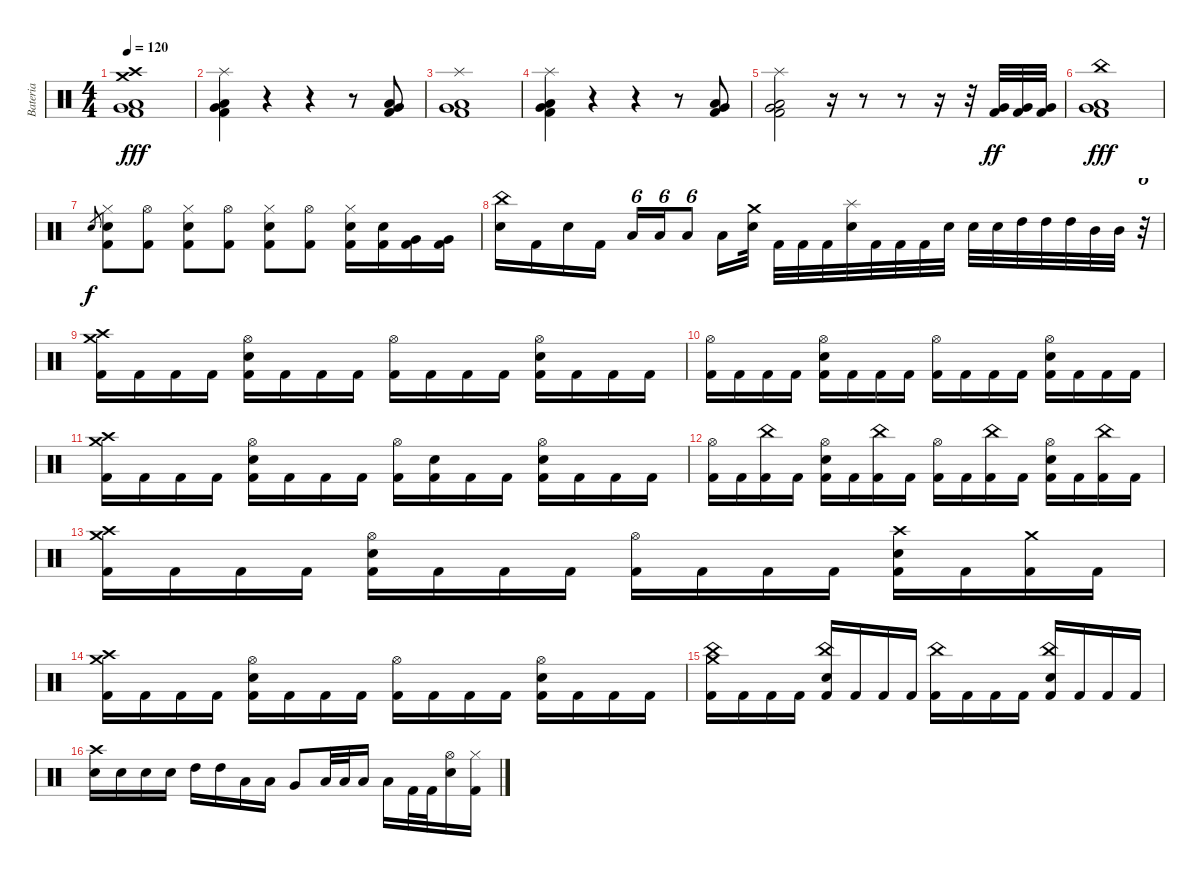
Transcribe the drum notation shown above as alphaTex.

\track ("Bateria" "Bateria") {instrument percussion}
\staff {score}
\articulation defaults
\ts (4 4)
\tempo 120
\clef neutral
\ks c
("Crash medium (hit)" "Crash high (hit)" "Very Low Tom (hit)" "Low Floor Tom (hit)" "Kick (hit) 2").1{dy fff} |
("Splash (hit)" "Very Low Tom (hit)" "Low Floor Tom (hit)" "Kick (hit) 2").4 r.4 r.4 r.8 ("Very Low Tom (hit)" "Low Floor Tom (hit)" "Kick (hit) 2").8 |
("Splash (hit)" "Very Low Tom (hit)" "Low Floor Tom (hit)" "Kick (hit) 2").1 |
("Splash (hit)" "Very Low Tom (hit)" "Low Floor Tom (hit)" "Kick (hit) 2").4 r.4 r.4 r.8 ("Very Low Tom (hit)" "Low Floor Tom (hit)" "Kick (hit) 2").8 |
("Splash (hit)" "Very Low Tom (hit)" "Low Floor Tom (hit)" "Kick (hit) 2").2 r.16 r.8 r.8 r.16 r.32 ("Very Low Tom (hit)" "Kick (hit) 2").32{dy ff} ("Very Low Tom (hit)" "Kick (hit) 2").32 ("Very Low Tom (hit)" "Kick (hit) 2").32 |
("China (hit)" "Low Floor Tom (hit)" "Very Low Tom (hit)" "Kick (hit) 2").1{dy fff} |
"Electric Snare (hit)".8{gr dy f} ("Hi-Hat (closed)" "Electric Snare (hit)" "Kick (hit) 2").8 ("Hi-Hat (open)" "Kick (hit) 2").8 ("Hi-Hat (closed)" "Electric Snare (hit)" "Kick (hit) 2").8 ("Hi-Hat (open)" "Kick (hit) 2").8 ("Hi-Hat (closed)" "Electric Snare (hit)" "Kick (hit) 2").8 ("Hi-Hat (open)" "Kick (hit) 2").8 ("Hi-Hat (closed)" "Electric Snare (hit)" "Kick (hit) 2").16 ("Electric Snare (hit)" "Kick (hit) 2").16 ("Very Low Tom (hit)" "Kick (hit) 2").16 ("Very Low Tom (hit)" "Kick (hit) 2").16 |
("China (hit)" "Electric Snare (hit)").16 "Kick (hit) 2".16 "Electric Snare (hit)".16 "Kick (hit) 2".16 "Low Tom (hit)".16{tu (6 4)} "Low Tom (hit)".16{tu (6 4)} "Low Tom (hit)".8{tu (6 4)} "Low Tom (hit)".16 ("Crash medium (hit)" "Electric Snare (hit)").32 "Kick (hit) 2".32 "Kick (hit) 2".32 "Kick (hit) 2".32 ("Splash (hit)" "Electric Snare (hit)").32 "Kick (hit) 2".32 "Kick (hit) 2".32 "Kick (hit) 2".32 "Electric Snare (hit)".32 "Electric Snare (hit)".32 "Electric Snare (hit)".32 "High Tom (hit)".32 "High Tom (hit)".32 "High Tom (hit)".32 "Mid Tom (hit)".32 "Mid Tom (hit)".32 r.32{tu (6 4)} |
("Crash medium (hit)" "Crash high (hit)" "Kick (hit) 2").16 "Kick (hit) 2".16 "Kick (hit) 2".16 "Kick (hit) 2".16 ("Hi-Hat (open)" "Electric Snare (hit)" "Kick (hit) 2").16 "Kick (hit) 2".16 "Kick (hit) 2".16 "Kick (hit) 2".16 ("Hi-Hat (open)" "Kick (hit) 2").16 "Kick (hit) 2".16 "Kick (hit) 2".16 "Kick (hit) 2".16 ("Hi-Hat (open)" "Electric Snare (hit)" "Kick (hit) 2").16 "Kick (hit) 2".16 "Kick (hit) 2".16 "Kick (hit) 2".16 |
("Hi-Hat (open)" "Kick (hit) 2").16 "Kick (hit) 2".16 "Kick (hit) 2".16 "Kick (hit) 2".16 ("Hi-Hat (open)" "Electric Snare (hit)" "Kick (hit) 2").16 "Kick (hit) 2".16 "Kick (hit) 2".16 "Kick (hit) 2".16 ("Hi-Hat (open)" "Kick (hit) 2").16 "Kick (hit) 2".16 "Kick (hit) 2".16 "Kick (hit) 2".16 ("Hi-Hat (open)" "Electric Snare (hit)" "Kick (hit) 2").16 "Kick (hit) 2".16 "Kick (hit) 2".16 "Kick (hit) 2".16 |
("Crash medium (hit)" "Crash high (hit)" "Kick (hit) 2").16 "Kick (hit) 2".16 "Kick (hit) 2".16 "Kick (hit) 2".16 ("Hi-Hat (open)" "Electric Snare (hit)" "Kick (hit) 2").16 "Kick (hit) 2".16 "Kick (hit) 2".16 "Kick (hit) 2".16 ("Hi-Hat (open)" "Kick (hit) 2").16 ("Electric Snare (hit)" "Kick (hit) 2").16 "Kick (hit) 2".16 "Kick (hit) 2".16 ("Hi-Hat (open)" "Electric Snare (hit)" "Kick (hit) 2").16 "Kick (hit) 2".16 "Kick (hit) 2".16 "Kick (hit) 2".16 |
("Hi-Hat (open)" "Kick (hit) 2").16 "Kick (hit) 2".16 ("China (hit)" "Kick (hit) 2").16 "Kick (hit) 2".16 ("Hi-Hat (open)" "Electric Snare (hit)" "Kick (hit) 2").16 "Kick (hit) 2".16 ("China (hit)" "Kick (hit) 2").16 "Kick (hit) 2".16 ("Hi-Hat (open)" "Kick (hit) 2").16 "Kick (hit) 2".16 ("China (hit)" "Kick (hit) 2").16 "Kick (hit) 2".16 ("Hi-Hat (open)" "Electric Snare (hit)" "Kick (hit) 2").16 "Kick (hit) 2".16 ("China (hit)" "Kick (hit) 2").16 "Kick (hit) 2".16 |
("Crash medium (hit)" "Crash high (hit)" "Kick (hit) 2").16 "Kick (hit) 2".16 "Kick (hit) 2".16 "Kick (hit) 2".16 ("Hi-Hat (open)" "Electric Snare (hit)" "Kick (hit) 2").16 "Kick (hit) 2".16 "Kick (hit) 2".16 "Kick (hit) 2".16 ("Hi-Hat (open)" "Kick (hit) 2").16 "Kick (hit) 2".16 "Kick (hit) 2".16 "Kick (hit) 2".16 ("Crash high (hit)" "Electric Snare (hit)" "Kick (hit) 2").16 "Kick (hit) 2".16 ("Crash medium (hit)" "Kick (hit) 2").16 "Kick (hit) 2".16 |
("Crash medium (hit)" "Crash high (hit)" "Kick (hit) 2").16 "Kick (hit) 2".16 "Kick (hit) 2".16 "Kick (hit) 2".16 ("Hi-Hat (open)" "Electric Snare (hit)" "Kick (hit) 2").16 "Kick (hit) 2".16 "Kick (hit) 2".16 "Kick (hit) 2".16 ("Hi-Hat (open)" "Kick (hit) 2").16 "Kick (hit) 2".16 "Kick (hit) 2".16 "Kick (hit) 2".16 ("Hi-Hat (open)" "Electric Snare (hit)" "Kick (hit) 2").16 "Kick (hit) 2".16 "Kick (hit) 2".16 "Kick (hit) 2".16 |
("Crash medium (hit)" "China (hit)" "Kick (hit) 2").16 "Kick (hit) 2".16 "Kick (hit) 2".16 "Kick (hit) 2".16 ("China (hit)" "Electric Snare (hit)" "Kick (hit) 2").16 "Kick (hit) 2".16 "Kick (hit) 2".16 "Kick (hit) 2".16 ("China (hit)" "Kick (hit) 2").16 "Kick (hit) 2".16 "Kick (hit) 2".16 "Kick (hit) 2".16 ("China (hit)" "Electric Snare (hit)" "Kick (hit) 2").16 "Kick (hit) 2".16 "Kick (hit) 2".16 "Kick (hit) 2".16 |
("Crash high (hit)" "Electric Snare (hit)").16 "Electric Snare (hit)".16 "Electric Snare (hit)".16 "Electric Snare (hit)".16 "High Tom (hit)".16 "High Tom (hit)".16 "Low Tom (hit)".16 "Low Tom (hit)".16 "Very Low Tom (hit)".8 "Low Floor Tom (hit)".32 "Low Floor Tom (hit)".32 "Low Floor Tom (hit)".16 "Low Floor Tom (hit)".16 "Kick (hit) 2".32 "Kick (hit) 2".32 ("Hi-Hat (open)" "Electric Snare (hit)").16 ("Hi-Hat (closed)" "Kick (hit) 2").16
